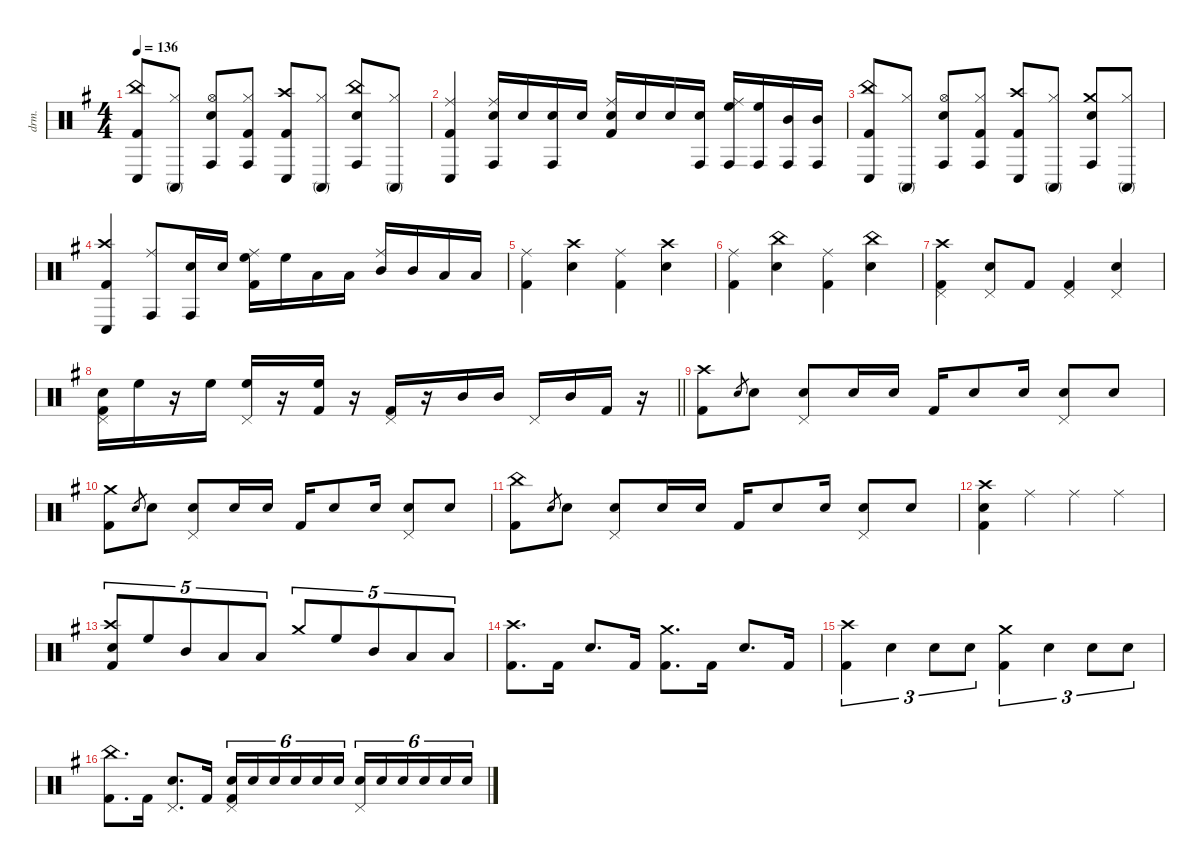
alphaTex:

\defaultSystemsLayout 4
\hideDynamics
\bracketExtendMode nobrackets
\otherSystemsTrackNameOrientation horizontal
\track ("Batterie" "drm.") {instrument percussion}
\staff {score}
\articulation defaults
\ts (4 4)
\tempo 136
\clef neutral
\ks g
("China (hit)"{acc forcenatural} "Conga low (hit)"{acc forcenatural} "Kick (hit) 2"{acc forcenatural}).8{dy f beam Up} ("Hi-Hat (closed)"{acc forcenatural} "Conga high (mute)"{acc forcenatural}).8{beam Up} ("Hi-Hat (open)"{acc forcenatural} "Conga high (hit)"{acc forcenatural} "Snare (hit) 2"{acc forcenatural}).8{beam Up} ("Hi-Hat (closed)"{acc forcenatural} "Conga high (hit)"{acc forcenatural} "Kick (hit) 2"{acc forcenatural}).8{beam Up} ("Crash high (hit)"{acc forcenatural} "Conga low (hit)"{acc forcenatural} "Kick (hit) 2"{acc forcenatural}).8{beam Up} ("Hi-Hat (closed)"{acc forcenatural} "Conga high (mute)"{acc forcenatural}).8{beam Up} ("China (hit)"{acc forcenatural} "Conga high (hit)"{acc forcenatural} "Snare (hit) 2"{acc forcenatural}).8{beam Up} ("Hi-Hat (closed)"{acc forcenatural} "Conga high (mute)"{acc forcenatural}).8{beam Up} |
("Ride (middle)"{acc forcenatural} "Conga low (hit)"{acc forcenatural} "Kick (hit) 2"{acc forcenatural}).4{beam Up} ("Ride (middle)"{acc forcenatural} "Conga high (hit)"{acc forcenatural} "Snare (hit) 2"{acc forcenatural}).16{beam Up} "Snare (hit) 2"{acc forcenatural}.16{beam Up} ("Conga high (hit)"{acc forcenatural} "Snare (hit) 2"{acc forcenatural}).16{beam Up} "Snare (hit) 2"{acc forcenatural}.16{beam Up} ("Ride (middle)"{acc forcenatural} "Snare (hit) 2"{acc forcenatural} "Kick (hit) 2"{acc forcenatural}).16{beam Up} "Snare (hit) 2"{acc forcenatural}.16{beam Up} "Snare (hit) 2"{acc forcenatural}.16{beam Up} ("Conga high (hit)"{acc forcenatural} "Snare (hit) 2"{acc forcenatural}).16{beam Up} ("Ride (middle)"{acc forcenatural} "High Floor Tom (hit)"{acc forcenatural} "Conga high (hit)"{acc forcenatural}).16{beam Up} ("High Floor Tom (hit)"{acc forcenatural} "Conga high (hit)"{acc forcenatural}).16{beam Up} ("Mid Tom (hit)"{acc forcenatural} "Conga high (hit)"{acc forcenatural}).16{beam Up} ("Mid Tom (hit)"{acc forcenatural} "Conga high (hit)"{acc forcenatural}).16{beam Up} |
("China (hit)"{acc forcenatural} "Conga low (hit)"{acc forcenatural} "Kick (hit) 2"{acc forcenatural}).8{beam Up} ("Hi-Hat (closed)"{acc forcenatural} "Conga high (mute)"{acc forcenatural}).8{beam Up} ("Hi-Hat (open)"{acc forcenatural} "Conga high (hit)"{acc forcenatural} "Snare (hit) 2"{acc forcenatural}).8{beam Up} ("Hi-Hat (closed)"{acc forcenatural} "Conga high (hit)"{acc forcenatural} "Kick (hit) 2"{acc forcenatural}).8{beam Up} ("Crash high (hit)"{acc forcenatural} "Conga low (hit)"{acc forcenatural} "Kick (hit) 2"{acc forcenatural}).8{beam Up} ("Hi-Hat (closed)"{acc forcenatural} "Conga high (mute)"{acc forcenatural}).8{beam Up} ("Crash medium (hit)"{acc forcenatural} "Conga high (hit)"{acc forcenatural} "Snare (hit) 2"{acc forcenatural}).8{beam Up} ("Hi-Hat (closed)"{acc forcenatural} "Conga high (mute)"{acc forcenatural}).8{beam Up} |
("Crash high (hit)"{acc forcenatural} "Conga low (hit)"{acc forcenatural} "Kick (hit) 2"{acc forcenatural}).4{beam Up} ("Ride (middle)"{acc forcenatural} "Conga high (hit)"{acc forcenatural}).8{beam Up} ("Conga high (hit)"{acc forcenatural} "Snare (hit) 2"{acc forcenatural}).16{beam Up} "Snare (hit) 2"{acc forcenatural}.16{beam Up} ("Ride (middle)"{acc forcenatural} "High Floor Tom (hit)"{acc forcenatural} "Kick (hit) 2"{acc forcenatural}).16{beam Down} "High Floor Tom (hit)"{acc forcenatural}.16{beam Down} "Low Tom (hit)"{acc forcenatural}.16{beam Down} "Low Tom (hit)"{acc forcenatural}.16{beam Down} ("Ride (middle)"{acc forcenatural} "Mid Tom (hit)"{acc forcenatural}).16{beam Up} "Mid Tom (hit)"{acc forcenatural}.16{beam Up} "Low Floor Tom (hit)"{acc forcenatural}.16{beam Up} "Low Floor Tom (hit)"{acc forcenatural}.16{beam Up} |
("Ride (middle)"{acc forcenatural} "Kick (hit) 2"{acc forcenatural}).4{beam Down} ("Crash high (hit)"{acc forcenatural} "Snare (hit) 2"{acc forcenatural}).4{beam Down} ("Ride (middle)"{acc forcenatural} "Kick (hit) 2"{acc forcenatural}).4{beam Down} ("Crash high (hit)"{acc forcenatural} "Snare (hit) 2"{acc forcenatural}).4{beam Down} |
("Ride (middle)"{acc forcenatural} "Kick (hit) 2"{acc forcenatural}).4{beam Down} ("China (hit)"{acc forcenatural} "Snare (hit) 2"{acc forcenatural}).4{beam Down} ("Ride (middle)"{acc forcenatural} "Kick (hit) 2"{acc forcenatural}).4{beam Down} ("China (hit)"{acc forcenatural} "Snare (hit) 2"{acc forcenatural}).4{beam Down} |
("Crash high (hit)"{acc forcenatural} "Pedal Hi-Hat (hit)"{acc forcenatural} "Kick (hit) 2"{acc forcenatural}).4{beam Down} ("Pedal Hi-Hat (hit)"{acc forcenatural} "Snare (hit) 2"{acc forcenatural}).8{beam Up} "Kick (hit) 2"{acc forcenatural}.8{beam Up} ("Pedal Hi-Hat (hit)"{acc forcenatural} "Kick (hit) 2"{acc forcenatural}).4{beam Up} ("Pedal Hi-Hat (hit)"{acc forcenatural} "Snare (hit) 2"{acc forcenatural}).4{beam Up} |
\barLineRight lightlight
("Pedal Hi-Hat (hit)"{acc forcenatural} "Snare (hit) 2"{acc forcenatural} "Kick (hit) 2"{acc forcenatural}).16{beam Down} "High Floor Tom (hit)"{acc forcenatural}.16{beam Down} r.16{beam Down} "High Floor Tom (hit)"{acc forcenatural}.16{beam Down} ("Pedal Hi-Hat (hit)"{acc forcenatural} "High Floor Tom (hit)"{acc forcenatural}).16{beam Up} r.16{beam Up} ("High Floor Tom (hit)"{acc forcenatural} "Kick (hit) 2"{acc forcenatural}).16{beam Up} r.16{beam Up} ("Pedal Hi-Hat (hit)"{acc forcenatural} "Kick (hit) 2"{acc forcenatural}).16{beam Up} r.16{beam Up} "Mid Tom (hit)"{acc forcenatural}.16{beam Up} "Mid Tom (hit)"{acc forcenatural}.16{beam Up} "Pedal Hi-Hat (hit)"{acc forcenatural}.16{beam Up} "Mid Tom (hit)"{acc forcenatural}.16{beam Up} "Kick (hit) 2"{acc forcenatural}.16{beam Up} r.16{beam Up} |
("Crash high (hit)"{acc forcenatural} "Kick (hit) 2"{acc forcenatural}).8{beam Down} "Snare (hit) 2"{acc forcenatural}.8{gr dy mf beam Up} "Snare (hit) 2"{acc forcenatural}.8{dy f beam Down} ("Pedal Hi-Hat (hit)"{acc forcenatural} "Snare (hit) 2"{acc forcenatural}).8{beam Up} "Snare (hit) 2"{acc forcenatural}.16{beam Up} "Snare (hit) 2"{acc forcenatural}.16{beam Up} "Kick (hit) 2"{acc forcenatural}.16{beam Up} "Snare (hit) 2"{acc forcenatural}.8{beam Up} "Snare (hit) 2"{acc forcenatural}.16{beam Up} ("Pedal Hi-Hat (hit)"{acc forcenatural} "Snare (hit) 2"{acc forcenatural}).8{beam Up} "Snare (hit) 2"{acc forcenatural}.8{beam Up} |
("Crash medium (hit)"{acc forcenatural} "Kick (hit) 2"{acc forcenatural}).8{beam Down} "Snare (hit) 2"{acc forcenatural}.8{gr dy mf beam Up} "Snare (hit) 2"{acc forcenatural}.8{dy f beam Down} ("Pedal Hi-Hat (hit)"{acc forcenatural} "Snare (hit) 2"{acc forcenatural}).8{beam Up} "Snare (hit) 2"{acc forcenatural}.16{beam Up} "Snare (hit) 2"{acc forcenatural}.16{beam Up} "Kick (hit) 2"{acc forcenatural}.16{beam Up} "Snare (hit) 2"{acc forcenatural}.8{beam Up} "Snare (hit) 2"{acc forcenatural}.16{beam Up} ("Pedal Hi-Hat (hit)"{acc forcenatural} "Snare (hit) 2"{acc forcenatural}).8{beam Up} "Snare (hit) 2"{acc forcenatural}.8{beam Up} |
("China (hit)"{acc forcenatural} "Kick (hit) 2"{acc forcenatural}).8{beam Down} "Snare (hit) 2"{acc forcenatural}.8{gr dy mf beam Up} "Snare (hit) 2"{acc forcenatural}.8{dy f beam Down} ("Pedal Hi-Hat (hit)"{acc forcenatural} "Snare (hit) 2"{acc forcenatural}).8{beam Up} "Snare (hit) 2"{acc forcenatural}.16{beam Up} "Snare (hit) 2"{acc forcenatural}.16{beam Up} "Kick (hit) 2"{acc forcenatural}.16{beam Up} "Snare (hit) 2"{acc forcenatural}.8{beam Up} "Snare (hit) 2"{acc forcenatural}.16{beam Up} ("Pedal Hi-Hat (hit)"{acc forcenatural} "Snare (hit) 2"{acc forcenatural}).8{beam Up} "Snare (hit) 2"{acc forcenatural}.8{beam Up} |
("Crash high (hit)"{acc forcenatural} "Snare (hit) 2"{acc forcenatural} "Kick (hit) 2"{acc forcenatural}).4{beam Down} "Ride (middle)"{acc forcenatural}.4{beam Down} "Ride (middle)"{acc forcenatural}.4{beam Down} "Ride (middle)"{acc forcenatural}.4{beam Down} |
("Crash high (hit)"{acc forcenatural} "Snare (hit) 2"{acc forcenatural} "Kick (hit) 2"{acc forcenatural}).8{tu (5 4) beam Up} "High Floor Tom (hit)"{acc forcenatural}.8{tu (5 4) beam Up} "Mid Tom (hit)"{acc forcenatural}.8{tu (5 4) beam Up} "Low Tom (hit)"{acc forcenatural}.8{tu (5 4) beam Up} "Low Floor Tom (hit)"{acc forcenatural}.8{tu (5 4) beam Up} "Crash medium (hit)"{acc forcenatural}.8{tu (5 4) beam Up} "High Floor Tom (hit)"{acc forcenatural}.8{tu (5 4) beam Up} "Mid Tom (hit)"{acc forcenatural}.8{tu (5 4) beam Up} "Low Tom (hit)"{acc forcenatural}.8{tu (5 4) beam Up} "Low Floor Tom (hit)"{acc forcenatural}.8{tu (5 4) beam Up} |
("Crash high (hit)"{acc forcenatural} "Kick (hit) 2"{acc forcenatural}).8{d beam Down} "Kick (hit) 2"{acc forcenatural}.16{beam Down} "Snare (hit) 2"{acc forcenatural}.8{d beam Up} "Kick (hit) 2"{acc forcenatural}.16{beam Up} ("Crash medium (hit)"{acc forcenatural} "Kick (hit) 2"{acc forcenatural}).8{d beam Down} "Kick (hit) 2"{acc forcenatural}.16{beam Down} "Snare (hit) 2"{acc forcenatural}.8{d beam Up} "Kick (hit) 2"{acc forcenatural}.16{beam Up} |
("Crash high (hit)"{acc forcenatural} "Kick (hit) 2"{acc forcenatural}).4{tu (3 2) beam Down} "Snare (hit) 2"{acc forcenatural}.4{tu (3 2) beam Down} "Snare (hit) 2"{acc forcenatural}.8{tu (3 2) beam Down} "Snare (hit) 2"{acc forcenatural}.8{tu (3 2) beam Down} ("Crash medium (hit)"{acc forcenatural} "Kick (hit) 2"{acc forcenatural}).4{tu (3 2) beam Down} "Snare (hit) 2"{acc forcenatural}.4{tu (3 2) beam Down} "Snare (hit) 2"{acc forcenatural}.8{tu (3 2) beam Down} "Snare (hit) 2"{acc forcenatural}.8{tu (3 2) beam Down} |
("China (hit)"{acc forcenatural} "Kick (hit) 2"{acc forcenatural}).8{d beam Down} "Kick (hit) 2"{acc forcenatural}.16{beam Down} ("Pedal Hi-Hat (hit)"{acc forcenatural} "Snare (hit) 2"{acc forcenatural}).8{d beam Up} "Kick (hit) 2"{acc forcenatural}.16{beam Up} ("Pedal Hi-Hat (hit)"{acc forcenatural} "Snare (hit) 2"{acc forcenatural} "Kick (hit) 2"{acc forcenatural}).16{tu (6 4) dy p beam Up} "Snare (hit) 2"{acc forcenatural}.16{tu (6 4) beam Up} "Snare (hit) 2"{acc forcenatural}.16{tu (6 4) beam Up} "Snare (hit) 2"{acc forcenatural}.16{tu (6 4) dy mp beam Up} "Snare (hit) 2"{acc forcenatural}.16{tu (6 4) beam Up} "Snare (hit) 2"{acc forcenatural}.16{tu (6 4) beam Up} ("Pedal Hi-Hat (hit)"{acc forcenatural} "Snare (hit) 2"{acc forcenatural}).16{tu (6 4) dy p beam Up} "Snare (hit) 2"{acc forcenatural}.16{tu (6 4) dy mf beam Up} "Snare (hit) 2"{acc forcenatural}.16{tu (6 4) beam Up} "Snare (hit) 2"{acc forcenatural}.16{tu (6 4) dy f beam Up} "Snare (hit) 2"{acc forcenatural}.16{tu (6 4) beam Up} "Snare (hit) 2"{acc forcenatural}.16{tu (6 4) beam Up}
